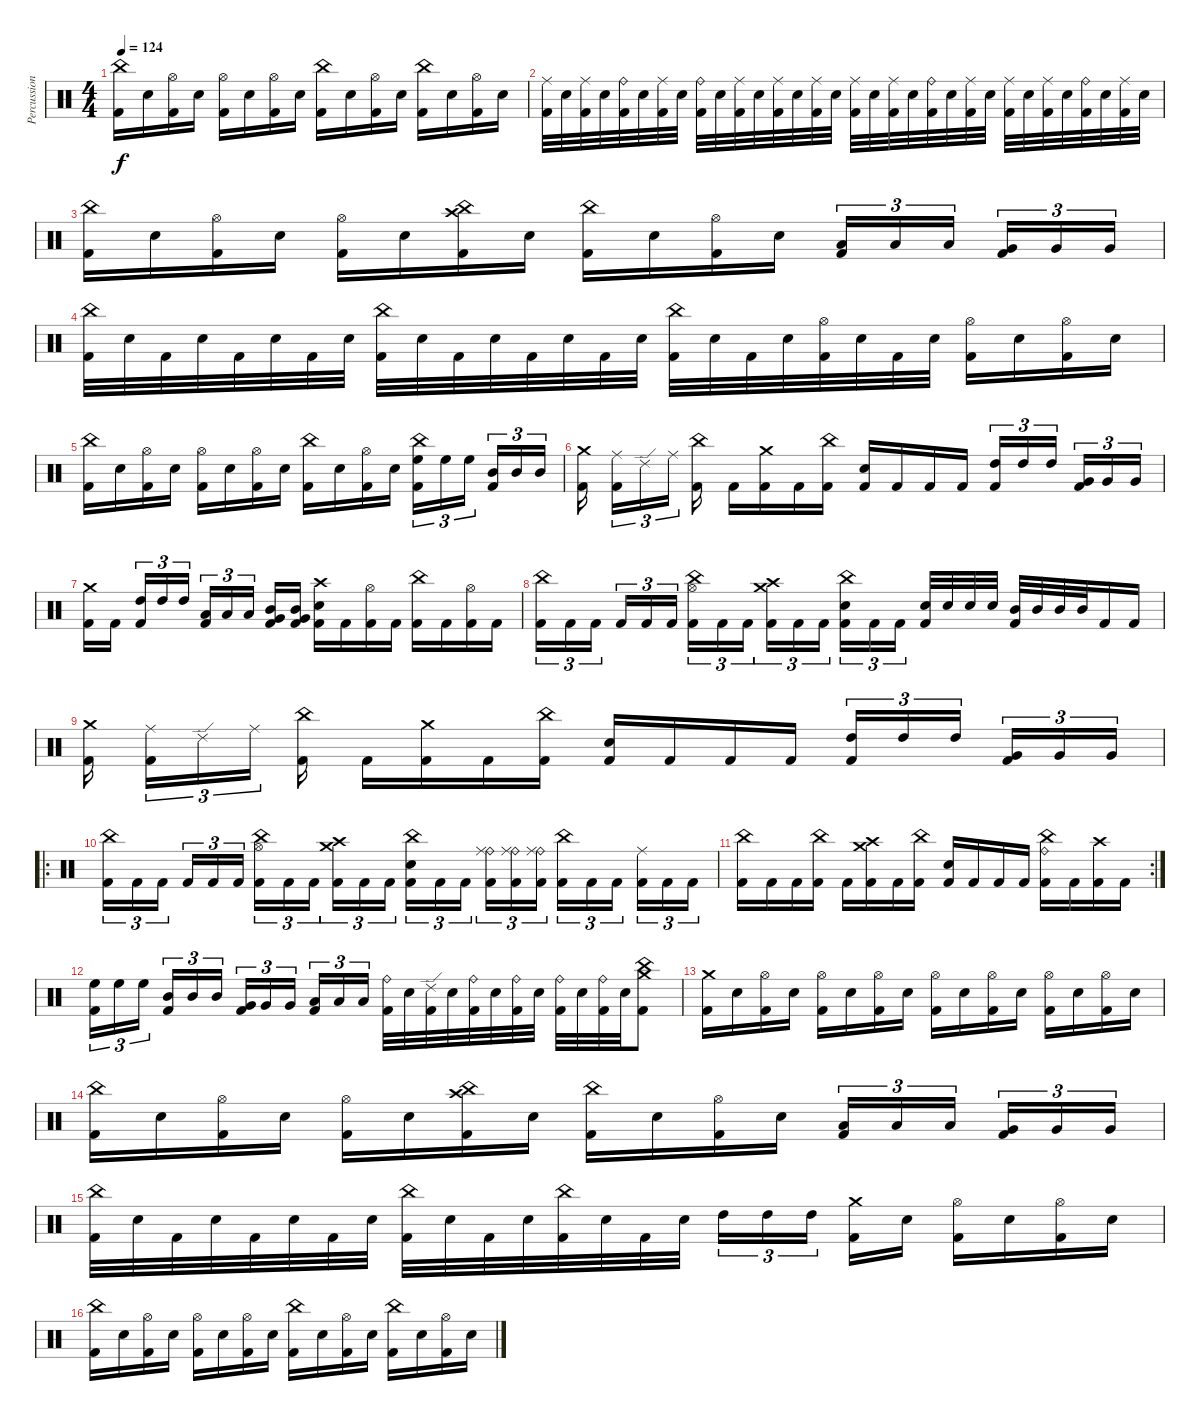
\track ("Percussion" "Percussion") {instrument percussion}
\staff {score}
\articulation defaults
\ts (4 4)
\tempo 124
\clef neutral
\ks c
("China (hit)" "Kick (hit) 2").16{dy f} "Electric Snare (hit)".16 ("Hi-Hat (open)" "Kick (hit) 2").16 "Electric Snare (hit)".16 ("Hi-Hat (open)" "Kick (hit) 2").16 "Electric Snare (hit)".16 ("Hi-Hat (open)" "Kick (hit) 2").16 "Electric Snare (hit)".16 ("China (hit)" "Kick (hit) 2").16 "Electric Snare (hit)".16 ("Hi-Hat (open)" "Kick (hit) 2").16 "Electric Snare (hit)".16 ("China (hit)" "Kick (hit) 2").16 "Electric Snare (hit)".16 ("Hi-Hat (open)" "Kick (hit) 2").16 "Electric Snare (hit)".16 |
("Ride (middle)" "Kick (hit) 2").32 "Electric Snare (hit)".32 ("Ride (middle)" "Kick (hit) 2").32 "Electric Snare (hit)".32 ("Ride (bell)" "Kick (hit) 2").32 "Electric Snare (hit)".32 ("Ride (middle)" "Kick (hit) 2").32 "Electric Snare (hit)".32 ("Ride (bell)" "Kick (hit) 2").32 "Electric Snare (hit)".32 ("Ride (middle)" "Kick (hit) 2").32 "Electric Snare (hit)".32 ("Ride (middle)" "Kick (hit) 2").32 "Electric Snare (hit)".32 ("Ride (middle)" "Kick (hit) 2").32 "Electric Snare (hit)".32 ("Ride (middle)" "Kick (hit) 2").32 "Electric Snare (hit)".32 ("Ride (middle)" "Kick (hit) 2").32 "Electric Snare (hit)".32 ("Ride (bell)" "Kick (hit) 2").32 "Electric Snare (hit)".32 ("Ride (middle)" "Kick (hit) 2").32 "Electric Snare (hit)".32 ("Ride (middle)" "Kick (hit) 2").32 "Electric Snare (hit)".32 ("Ride (middle)" "Kick (hit) 2").32 "Electric Snare (hit)".32 ("Ride (bell)" "Kick (hit) 2").32 "Electric Snare (hit)".32 ("Ride (middle)" "Kick (hit) 2").32 "Electric Snare (hit)".32 |
("China (hit)" "Kick (hit) 2").16 "Electric Snare (hit)".16 ("Hi-Hat (open)" "Kick (hit) 2").16 "Electric Snare (hit)".16 ("Hi-Hat (open)" "Kick (hit) 2").16 "Electric Snare (hit)".16 ("Crash high (hit)" "China (hit)" "Kick (hit) 2").16 "Electric Snare (hit)".16 ("China (hit)" "Kick (hit) 2").16 "Electric Snare (hit)".16 ("Hi-Hat (open)" "Kick (hit) 2").16 "Electric Snare (hit)".16 ("Low Tom (hit)" "Kick (hit) 2").16{tu (3 2)} "Low Tom (hit)".16{tu (3 2)} "Low Tom (hit)".16{tu (3 2) beam splitsecondary} ("Very Low Tom (hit)" "Kick (hit) 2").16{tu (3 2)} "Very Low Tom (hit)".16{tu (3 2)} "Very Low Tom (hit)".16{tu (3 2)} |
("China (hit)" "Kick (hit) 2").32 "Electric Snare (hit)".32 "Kick (hit) 2".32 "Electric Snare (hit)".32 "Kick (hit) 2".32 "Electric Snare (hit)".32 "Kick (hit) 2".32 "Electric Snare (hit)".32 ("China (hit)" "Kick (hit) 2").32 "Electric Snare (hit)".32 "Kick (hit) 2".32 "Electric Snare (hit)".32 "Kick (hit) 2".32 "Electric Snare (hit)".32 "Kick (hit) 2".32 "Electric Snare (hit)".32 ("China (hit)" "Kick (hit) 2").32 "Electric Snare (hit)".32 "Kick (hit) 2".32 "Electric Snare (hit)".32 ("Hi-Hat (open)" "Kick (hit) 2").32 "Electric Snare (hit)".32 "Kick (hit) 2".32 "Electric Snare (hit)".32 ("Hi-Hat (open)" "Kick (hit) 2").16 "Electric Snare (hit)".16 ("Hi-Hat (open)" "Kick (hit) 2").16 "Electric Snare (hit)".16 |
("China (hit)" "Kick (hit) 2").16 "Electric Snare (hit)".16 ("Hi-Hat (open)" "Kick (hit) 2").16 "Electric Snare (hit)".16 ("Hi-Hat (open)" "Kick (hit) 2").16 "Electric Snare (hit)".16 ("Hi-Hat (open)" "Kick (hit) 2").16 "Electric Snare (hit)".16 ("China (hit)" "Kick (hit) 2").16 "Electric Snare (hit)".16 ("Hi-Hat (open)" "Kick (hit) 2").16 "Electric Snare (hit)".16 ("China (hit)" "High Floor Tom (hit)" "Kick (hit) 2").16{tu (3 2)} "High Floor Tom (hit)".16{tu (3 2)} "High Floor Tom (hit)".16{tu (3 2) beam splitsecondary} ("Mid Tom (hit)" "Kick (hit) 2").16{tu (3 2)} "Mid Tom (hit)".16{tu (3 2)} "Mid Tom (hit)".16{tu (3 2)} |
("Crash medium (hit)" "Kick (hit) 2").16{beam splitsecondary} ("Ride (middle)" "Kick (hit) 2").16{tu (3 2)} "Ride (edge) 2".16{tu (3 2)} "Ride (middle)".16{tu (3 2) beam splitsecondary} ("China (hit)" "Kick (hit) 2").16 "Kick (hit) 2".16 ("Crash medium (hit)" "Kick (hit) 2").16 "Kick (hit) 2".16 ("China (hit)" "Kick (hit) 2").16 ("Electric Snare (hit)" "Kick (hit) 2").16 "Kick (hit) 2".16 "Kick (hit) 2".16 "Kick (hit) 2".16 ("High Tom (hit)" "Kick (hit) 2").16{tu (3 2)} "High Tom (hit)".16{tu (3 2)} "High Tom (hit)".16{tu (3 2) beam splitsecondary} ("Very Low Tom (hit)" "Kick (hit) 2").16{tu (3 2)} "Very Low Tom (hit)".16{tu (3 2)} "Very Low Tom (hit)".16{tu (3 2)} |
("Crash medium (hit)" "Kick (hit) 2").16 "Kick (hit) 2".16{beam splitsecondary} ("High Tom (hit)" "Kick (hit) 2").16{tu (3 2)} "High Tom (hit)".16{tu (3 2)} "High Tom (hit)".16{tu (3 2)} ("Low Tom (hit)" "Kick (hit) 2").16{tu (3 2)} "Low Tom (hit)".16{tu (3 2)} "Low Tom (hit)".16{tu (3 2) beam splitsecondary} ("Very Low Tom (hit)" "Mid Tom (hit)" "Kick (hit) 2").16 ("Very Low Tom (hit)" "Mid Tom (hit)" "Kick (hit) 2").16 ("Crash high (hit)" "Electric Snare (hit)" "Kick (hit) 2").16 "Kick (hit) 2".16 ("Hi-Hat (open)" "Kick (hit) 2").16 "Kick (hit) 2".16 ("China (hit)" "Kick (hit) 2").16 "Kick (hit) 2".16 ("Hi-Hat (open)" "Kick (hit) 2").16 "Kick (hit) 2".16 |
("China (hit)" "Kick (hit) 2").16{tu (3 2)} "Kick (hit) 2".16{tu (3 2)} "Kick (hit) 2".16{tu (3 2) beam splitsecondary} "Kick (hit) 2".16{tu (3 2)} "Kick (hit) 2".16{tu (3 2)} "Kick (hit) 2".16{tu (3 2)} ("China (hit)" "Hi-Hat (open)" "Kick (hit) 2").16{tu (3 2)} "Kick (hit) 2".16{tu (3 2)} "Kick (hit) 2".16{tu (3 2) beam splitsecondary} ("Crash medium (hit)" "Crash high (hit)" "Kick (hit) 2").16{tu (3 2)} "Kick (hit) 2".16{tu (3 2)} "Kick (hit) 2".16{tu (3 2)} ("China (hit)" "Electric Snare (hit)" "Kick (hit) 2").16{tu (3 2)} "Kick (hit) 2".16{tu (3 2)} "Kick (hit) 2".16{tu (3 2) beam splitsecondary} ("Electric Snare (hit)" "Kick (hit) 2").32 "Electric Snare (hit)".32 "Electric Snare (hit)".32 "Electric Snare (hit)".32 ("Mid Tom (hit)" "Kick (hit) 2").32 "Mid Tom (hit)".32 "Mid Tom (hit)".32 "Mid Tom (hit)".32 "Kick (hit) 2".16 "Kick (hit) 2".16 |
("Crash medium (hit)" "Kick (hit) 2").16{beam splitsecondary} ("Ride (middle)" "Kick (hit) 2").16{tu (3 2)} "Ride (edge) 2".16{tu (3 2)} "Ride (middle)".16{tu (3 2) beam splitsecondary} ("China (hit)" "Kick (hit) 2").16 "Kick (hit) 2".16 ("Crash medium (hit)" "Kick (hit) 2").16 "Kick (hit) 2".16 ("China (hit)" "Kick (hit) 2").16 ("Electric Snare (hit)" "Kick (hit) 2").16 "Kick (hit) 2".16 "Kick (hit) 2".16 "Kick (hit) 2".16 ("High Tom (hit)" "Kick (hit) 2").16{tu (3 2)} "High Tom (hit)".16{tu (3 2)} "High Tom (hit)".16{tu (3 2) beam splitsecondary} ("Very Low Tom (hit)" "Kick (hit) 2").16{tu (3 2)} "Very Low Tom (hit)".16{tu (3 2)} "Very Low Tom (hit)".16{tu (3 2)} |
\ro
("China (hit)" "Kick (hit) 2").16{tu (3 2)} "Kick (hit) 2".16{tu (3 2)} "Kick (hit) 2".16{tu (3 2) beam splitsecondary} "Kick (hit) 2".16{tu (3 2)} "Kick (hit) 2".16{tu (3 2)} "Kick (hit) 2".16{tu (3 2)} ("China (hit)" "Hi-Hat (open)" "Kick (hit) 2").16{tu (3 2)} "Kick (hit) 2".16{tu (3 2)} "Kick (hit) 2".16{tu (3 2) beam splitsecondary} ("Crash medium (hit)" "Crash high (hit)" "Kick (hit) 2").16{tu (3 2)} "Kick (hit) 2".16{tu (3 2)} "Kick (hit) 2".16{tu (3 2)} ("China (hit)" "Electric Snare (hit)" "Kick (hit) 2").16{tu (3 2)} "Kick (hit) 2".16{tu (3 2)} "Kick (hit) 2".16{tu (3 2) beam splitsecondary} ("Ride (bell)" "Ride (middle)" "Kick (hit) 2").16{tu (3 2)} ("Ride (bell)" "Ride (middle)" "Kick (hit) 2").16{tu (3 2)} ("Ride (bell)" "Ride (middle)" "Kick (hit) 2").16{tu (3 2)} ("China (hit)" "Kick (hit) 2").16{tu (3 2)} "Kick (hit) 2".16{tu (3 2)} "Kick (hit) 2".16{tu (3 2) beam splitsecondary} ("Ride (middle)" "Kick (hit) 2").16{tu (3 2)} "Kick (hit) 2".16{tu (3 2)} "Kick (hit) 2".16{tu (3 2)} |
\rc 2
("China (hit)" "Kick (hit) 2").16 "Kick (hit) 2".16 "Kick (hit) 2".16 ("China (hit)" "Kick (hit) 2").16 "Kick (hit) 2".16 ("Crash medium (hit)" "Crash high (hit)" "Kick (hit) 2").16 "Kick (hit) 2".16 ("China (hit)" "Kick (hit) 2").16 ("Electric Snare (hit)" "Kick (hit) 2").16 "Kick (hit) 2".16 "Kick (hit) 2".16 "Kick (hit) 2".16 ("China (hit)" "Ride (bell)" "Kick (hit) 2").16 "Kick (hit) 2".16 ("Crash high (hit)" "Kick (hit) 2").16 "Kick (hit) 2".16 |
("High Floor Tom (hit)" "Kick (hit) 2").16{tu (3 2)} "High Floor Tom (hit)".16{tu (3 2)} "High Floor Tom (hit)".16{tu (3 2) beam splitsecondary} ("Mid Tom (hit)" "Kick (hit) 2").16{tu (3 2)} "Mid Tom (hit)".16{tu (3 2)} "Mid Tom (hit)".16{tu (3 2)} ("Very Low Tom (hit)" "Kick (hit) 2").16{tu (3 2)} "Very Low Tom (hit)".16{tu (3 2)} "Very Low Tom (hit)".16{tu (3 2) beam splitsecondary} ("Low Tom (hit)" "Kick (hit) 2").16{tu (3 2)} "Low Tom (hit)".16{tu (3 2)} "Low Tom (hit)".16{tu (3 2)} ("Ride (bell)" "Kick (hit) 2").32 "Electric Snare (hit)".32 ("Ride (edge) 2" "Kick (hit) 2").32 "Electric Snare (hit)".32 ("Ride (bell)" "Kick (hit) 2").32 "Electric Snare (hit)".32 ("Ride (bell)" "Kick (hit) 2").32 "Electric Snare (hit)".32 ("Ride (bell)" "Kick (hit) 2").32 "Electric Snare (hit)".32 ("Ride (bell)" "Kick (hit) 2").32 "Electric Snare (hit)".32 ("China (hit)" "Crash medium (hit)" "Kick (hit) 2").8 |
("Crash medium (hit)" "Kick (hit) 2").16 "Electric Snare (hit)".16 ("Hi-Hat (open)" "Kick (hit) 2").16 "Electric Snare (hit)".16 ("Hi-Hat (open)" "Kick (hit) 2").16 "Electric Snare (hit)".16 ("Hi-Hat (open)" "Kick (hit) 2").16 "Electric Snare (hit)".16 ("Hi-Hat (open)" "Kick (hit) 2").16 "Electric Snare (hit)".16 ("Hi-Hat (open)" "Kick (hit) 2").16 "Electric Snare (hit)".16 ("Hi-Hat (open)" "Kick (hit) 2").16 "Electric Snare (hit)".16 ("Hi-Hat (open)" "Kick (hit) 2").16 "Electric Snare (hit)".16 |
("China (hit)" "Kick (hit) 2").16 "Electric Snare (hit)".16 ("Hi-Hat (open)" "Kick (hit) 2").16 "Electric Snare (hit)".16 ("Hi-Hat (open)" "Kick (hit) 2").16 "Electric Snare (hit)".16 ("Crash high (hit)" "China (hit)" "Kick (hit) 2").16 "Electric Snare (hit)".16 ("China (hit)" "Kick (hit) 2").16 "Electric Snare (hit)".16 ("Hi-Hat (open)" "Kick (hit) 2").16 "Electric Snare (hit)".16 ("Low Tom (hit)" "Kick (hit) 2").16{tu (3 2)} "Low Tom (hit)".16{tu (3 2)} "Low Tom (hit)".16{tu (3 2) beam splitsecondary} ("Very Low Tom (hit)" "Kick (hit) 2").16{tu (3 2)} "Very Low Tom (hit)".16{tu (3 2)} "Very Low Tom (hit)".16{tu (3 2)} |
("China (hit)" "Kick (hit) 2").32 "Electric Snare (hit)".32 "Kick (hit) 2".32 "Electric Snare (hit)".32 "Kick (hit) 2".32 "Electric Snare (hit)".32 "Kick (hit) 2".32 "Electric Snare (hit)".32 ("China (hit)" "Kick (hit) 2").32 "Electric Snare (hit)".32 "Kick (hit) 2".32 "Electric Snare (hit)".32 ("China (hit)" "Kick (hit) 2").32 "Electric Snare (hit)".32 "Kick (hit) 2".32 "Electric Snare (hit)".32 "High Tom (hit)".16{tu (3 2)} "High Tom (hit)".16{tu (3 2)} "High Tom (hit)".16{tu (3 2) beam splitsecondary} ("Crash medium (hit)" "Kick (hit) 2").16 "Electric Snare (hit)".16 ("Hi-Hat (open)" "Kick (hit) 2").16 "Electric Snare (hit)".16 ("Hi-Hat (open)" "Kick (hit) 2").16 "Electric Snare (hit)".16 |
("China (hit)" "Kick (hit) 2").16 "Electric Snare (hit)".16 ("Hi-Hat (open)" "Kick (hit) 2").16 "Electric Snare (hit)".16 ("Hi-Hat (open)" "Kick (hit) 2").16 "Electric Snare (hit)".16 ("Hi-Hat (open)" "Kick (hit) 2").16 "Electric Snare (hit)".16 ("China (hit)" "Kick (hit) 2").16 "Electric Snare (hit)".16 ("Hi-Hat (open)" "Kick (hit) 2").16 "Electric Snare (hit)".16 ("China (hit)" "Kick (hit) 2").16 "Electric Snare (hit)".16 ("Hi-Hat (open)" "Kick (hit) 2").16 "Electric Snare (hit)".16
